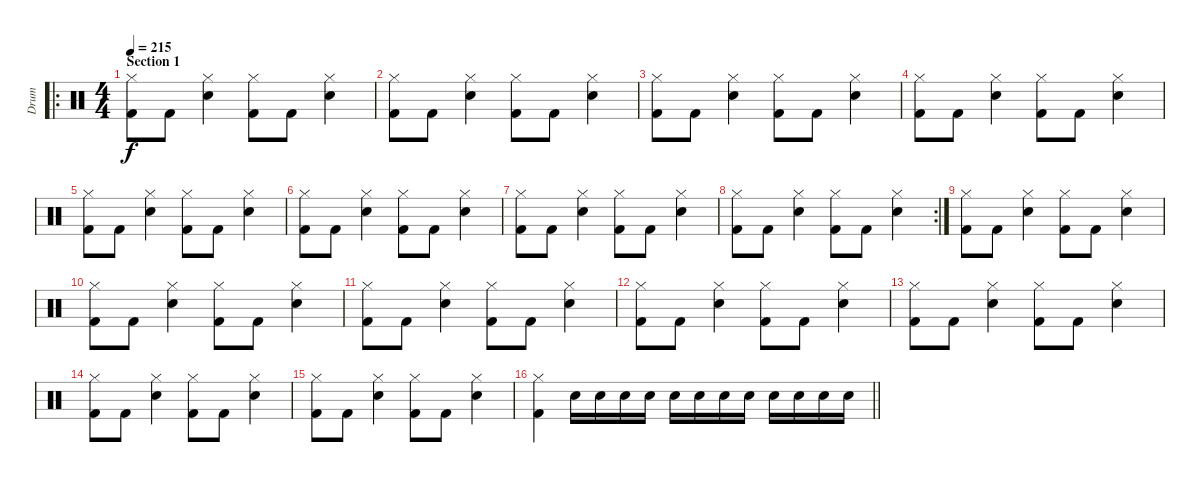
\track ("Drum" "Drum") {instrument percussion}
\staff {score}
\articulation defaults
\ro
\ts (4 4)
\section ("" "Section 1")
\tempo 215
\clef neutral
\ks c
("Kick (hit) 2" "Hi-Hat (closed)").8{dy f} "Kick (hit) 2".8 ("Electric Snare (hit)" "Hi-Hat (closed)").4 ("Kick (hit) 2" "Hi-Hat (closed)").8 "Kick (hit) 2".8 ("Electric Snare (hit)" "Hi-Hat (closed)").4 |
("Kick (hit) 2" "Hi-Hat (closed)").8 "Kick (hit) 2".8 ("Electric Snare (hit)" "Hi-Hat (closed)").4 ("Kick (hit) 2" "Hi-Hat (closed)").8 "Kick (hit) 2".8 ("Electric Snare (hit)" "Hi-Hat (closed)").4 |
("Kick (hit) 2" "Hi-Hat (closed)").8 "Kick (hit) 2".8 ("Electric Snare (hit)" "Hi-Hat (closed)").4 ("Kick (hit) 2" "Hi-Hat (closed)").8 "Kick (hit) 2".8 ("Electric Snare (hit)" "Hi-Hat (closed)").4 |
("Kick (hit) 2" "Hi-Hat (closed)").8 "Kick (hit) 2".8 ("Electric Snare (hit)" "Hi-Hat (closed)").4 ("Kick (hit) 2" "Hi-Hat (closed)").8 "Kick (hit) 2".8 ("Electric Snare (hit)" "Hi-Hat (closed)").4 |
("Kick (hit) 2" "Hi-Hat (closed)").8 "Kick (hit) 2".8 ("Electric Snare (hit)" "Hi-Hat (closed)").4 ("Kick (hit) 2" "Hi-Hat (closed)").8 "Kick (hit) 2".8 ("Electric Snare (hit)" "Hi-Hat (closed)").4 |
("Kick (hit) 2" "Hi-Hat (closed)").8 "Kick (hit) 2".8 ("Electric Snare (hit)" "Hi-Hat (closed)").4 ("Kick (hit) 2" "Hi-Hat (closed)").8 "Kick (hit) 2".8 ("Electric Snare (hit)" "Hi-Hat (closed)").4 |
("Kick (hit) 2" "Hi-Hat (closed)").8 "Kick (hit) 2".8 ("Electric Snare (hit)" "Hi-Hat (closed)").4 ("Kick (hit) 2" "Hi-Hat (closed)").8 "Kick (hit) 2".8 ("Electric Snare (hit)" "Hi-Hat (closed)").4 |
\rc 2
("Kick (hit) 2" "Hi-Hat (closed)").8 "Kick (hit) 2".8 ("Electric Snare (hit)" "Hi-Hat (closed)").4 ("Kick (hit) 2" "Hi-Hat (closed)").8 "Kick (hit) 2".8 ("Electric Snare (hit)" "Hi-Hat (closed)").4 |
("Kick (hit) 2" "Hi-Hat (closed)").8 "Kick (hit) 2".8 ("Electric Snare (hit)" "Hi-Hat (closed)").4 ("Kick (hit) 2" "Hi-Hat (closed)").8 "Kick (hit) 2".8 ("Electric Snare (hit)" "Hi-Hat (closed)").4 |
("Kick (hit) 2" "Hi-Hat (closed)").8 "Kick (hit) 2".8 ("Electric Snare (hit)" "Hi-Hat (closed)").4 ("Kick (hit) 2" "Hi-Hat (closed)").8 "Kick (hit) 2".8 ("Electric Snare (hit)" "Hi-Hat (closed)").4 |
("Kick (hit) 2" "Hi-Hat (closed)").8 "Kick (hit) 2".8 ("Electric Snare (hit)" "Hi-Hat (closed)").4 ("Kick (hit) 2" "Hi-Hat (closed)").8 "Kick (hit) 2".8 ("Electric Snare (hit)" "Hi-Hat (closed)").4 |
("Kick (hit) 2" "Hi-Hat (closed)").8 "Kick (hit) 2".8 ("Electric Snare (hit)" "Hi-Hat (closed)").4 ("Kick (hit) 2" "Hi-Hat (closed)").8 "Kick (hit) 2".8 ("Electric Snare (hit)" "Hi-Hat (closed)").4 |
("Kick (hit) 2" "Hi-Hat (closed)").8 "Kick (hit) 2".8 ("Electric Snare (hit)" "Hi-Hat (closed)").4 ("Kick (hit) 2" "Hi-Hat (closed)").8 "Kick (hit) 2".8 ("Electric Snare (hit)" "Hi-Hat (closed)").4 |
("Kick (hit) 2" "Hi-Hat (closed)").8 "Kick (hit) 2".8 ("Electric Snare (hit)" "Hi-Hat (closed)").4 ("Kick (hit) 2" "Hi-Hat (closed)").8 "Kick (hit) 2".8 ("Electric Snare (hit)" "Hi-Hat (closed)").4 |
("Kick (hit) 2" "Hi-Hat (closed)").8 "Kick (hit) 2".8 ("Electric Snare (hit)" "Hi-Hat (closed)").4 ("Kick (hit) 2" "Hi-Hat (closed)").8 "Kick (hit) 2".8 ("Electric Snare (hit)" "Hi-Hat (closed)").4 |
\barLineRight lightlight
("Kick (hit) 2" "Hi-Hat (closed)").4 "Electric Snare (hit)".16 "Electric Snare (hit)".16 "Electric Snare (hit)".16 "Electric Snare (hit)".16 "Electric Snare (hit)".16 "Electric Snare (hit)".16 "Electric Snare (hit)".16 "Electric Snare (hit)".16 "Electric Snare (hit)".16 "Electric Snare (hit)".16 "Electric Snare (hit)".16 "Electric Snare (hit)".16
